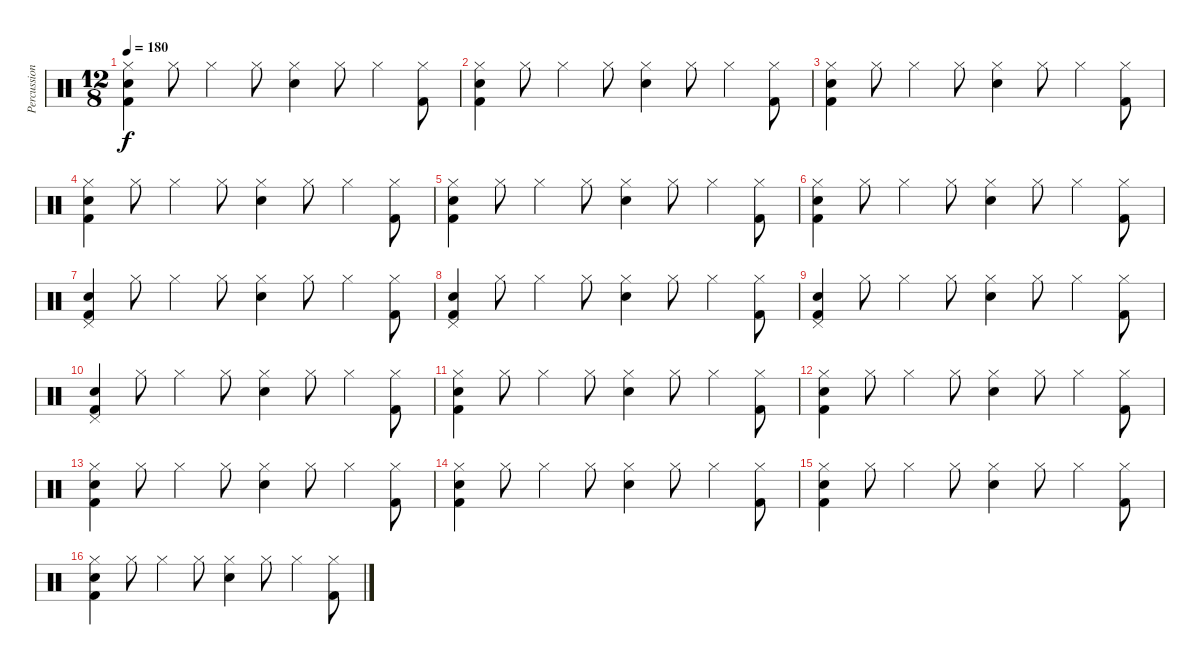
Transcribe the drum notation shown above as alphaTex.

\track ("Percussioni" "Percussion") {instrument percussion}
\staff {score}
\articulation defaults
\ts (12 8)
\tempo 180
\clef neutral
\ks c
("Hi-Hat (closed)" "Snare (hit) 2" "Kick (hit) 2").4{dy f} "Hi-Hat (closed)".8 "Hi-Hat (closed)".4 "Hi-Hat (closed)".8 ("Hi-Hat (closed)" "Snare (hit) 2").4 "Hi-Hat (closed)".8 "Hi-Hat (closed)".4 ("Hi-Hat (closed)" "Kick (hit) 2").8 |
("Hi-Hat (closed)" "Snare (hit) 2" "Kick (hit) 2").4 "Hi-Hat (closed)".8 "Hi-Hat (closed)".4 "Hi-Hat (closed)".8 ("Hi-Hat (closed)" "Snare (hit) 2").4 "Hi-Hat (closed)".8 "Hi-Hat (closed)".4 ("Hi-Hat (closed)" "Kick (hit) 2").8 |
("Hi-Hat (closed)" "Snare (hit) 2" "Kick (hit) 2").4 "Hi-Hat (closed)".8 "Hi-Hat (closed)".4 "Hi-Hat (closed)".8 ("Hi-Hat (closed)" "Snare (hit) 2").4 "Hi-Hat (closed)".8 "Hi-Hat (closed)".4 ("Hi-Hat (closed)" "Kick (hit) 2").8 |
("Hi-Hat (closed)" "Snare (hit) 2" "Kick (hit) 2").4 "Hi-Hat (closed)".8 "Hi-Hat (closed)".4 "Hi-Hat (closed)".8 ("Hi-Hat (closed)" "Snare (hit) 2").4 "Hi-Hat (closed)".8 "Hi-Hat (closed)".4 ("Hi-Hat (closed)" "Kick (hit) 2").8 |
("Hi-Hat (closed)" "Snare (hit) 2" "Kick (hit) 2").4 "Hi-Hat (closed)".8 "Hi-Hat (closed)".4 "Hi-Hat (closed)".8 ("Hi-Hat (closed)" "Snare (hit) 2").4 "Hi-Hat (closed)".8 "Hi-Hat (closed)".4 ("Hi-Hat (closed)" "Kick (hit) 2").8 |
("Hi-Hat (closed)" "Snare (hit) 2" "Kick (hit) 2").4 "Hi-Hat (closed)".8 "Hi-Hat (closed)".4 "Hi-Hat (closed)".8 ("Hi-Hat (closed)" "Snare (hit) 2").4 "Hi-Hat (closed)".8 "Hi-Hat (closed)".4 ("Hi-Hat (closed)" "Kick (hit) 2").8 |
("Pedal Hi-Hat (hit)" "Snare (hit) 2" "Kick (hit) 2").4 "Hi-Hat (closed)".8 "Hi-Hat (closed)".4 "Hi-Hat (closed)".8 ("Hi-Hat (closed)" "Snare (hit) 2").4 "Hi-Hat (closed)".8 "Hi-Hat (closed)".4 ("Hi-Hat (closed)" "Kick (hit) 2").8 |
("Pedal Hi-Hat (hit)" "Snare (hit) 2" "Kick (hit) 2").4 "Hi-Hat (closed)".8 "Hi-Hat (closed)".4 "Hi-Hat (closed)".8 ("Hi-Hat (closed)" "Snare (hit) 2").4 "Hi-Hat (closed)".8 "Hi-Hat (closed)".4 ("Hi-Hat (closed)" "Kick (hit) 2").8 |
("Pedal Hi-Hat (hit)" "Snare (hit) 2" "Kick (hit) 2").4 "Hi-Hat (closed)".8 "Hi-Hat (closed)".4 "Hi-Hat (closed)".8 ("Hi-Hat (closed)" "Snare (hit) 2").4 "Hi-Hat (closed)".8 "Hi-Hat (closed)".4 ("Hi-Hat (closed)" "Kick (hit) 2").8 |
("Pedal Hi-Hat (hit)" "Snare (hit) 2" "Kick (hit) 2").4 "Hi-Hat (closed)".8 "Hi-Hat (closed)".4 "Hi-Hat (closed)".8 ("Hi-Hat (closed)" "Snare (hit) 2").4 "Hi-Hat (closed)".8 "Hi-Hat (closed)".4 ("Hi-Hat (closed)" "Kick (hit) 2").8 |
("Hi-Hat (closed)" "Snare (hit) 2" "Kick (hit) 2").4 "Hi-Hat (closed)".8 "Hi-Hat (closed)".4 "Hi-Hat (closed)".8 ("Hi-Hat (closed)" "Snare (hit) 2").4 "Hi-Hat (closed)".8 "Hi-Hat (closed)".4 ("Hi-Hat (closed)" "Kick (hit) 2").8 |
("Hi-Hat (closed)" "Snare (hit) 2" "Kick (hit) 2").4 "Hi-Hat (closed)".8 "Hi-Hat (closed)".4 "Hi-Hat (closed)".8 ("Hi-Hat (closed)" "Snare (hit) 2").4 "Hi-Hat (closed)".8 "Hi-Hat (closed)".4 ("Hi-Hat (closed)" "Kick (hit) 2").8 |
("Hi-Hat (closed)" "Snare (hit) 2" "Kick (hit) 2").4 "Hi-Hat (closed)".8 "Hi-Hat (closed)".4 "Hi-Hat (closed)".8 ("Hi-Hat (closed)" "Snare (hit) 2").4 "Hi-Hat (closed)".8 "Hi-Hat (closed)".4 ("Hi-Hat (closed)" "Kick (hit) 2").8 |
("Hi-Hat (closed)" "Snare (hit) 2" "Kick (hit) 2").4 "Hi-Hat (closed)".8 "Hi-Hat (closed)".4 "Hi-Hat (closed)".8 ("Hi-Hat (closed)" "Snare (hit) 2").4 "Hi-Hat (closed)".8 "Hi-Hat (closed)".4 ("Hi-Hat (closed)" "Kick (hit) 2").8 |
("Hi-Hat (closed)" "Snare (hit) 2" "Kick (hit) 2").4 "Hi-Hat (closed)".8 "Hi-Hat (closed)".4 "Hi-Hat (closed)".8 ("Hi-Hat (closed)" "Snare (hit) 2").4 "Hi-Hat (closed)".8 "Hi-Hat (closed)".4 ("Hi-Hat (closed)" "Kick (hit) 2").8 |
("Hi-Hat (closed)" "Snare (hit) 2" "Kick (hit) 2").4 "Hi-Hat (closed)".8 "Hi-Hat (closed)".4 "Hi-Hat (closed)".8 ("Hi-Hat (closed)" "Snare (hit) 2").4 "Hi-Hat (closed)".8 "Hi-Hat (closed)".4 ("Hi-Hat (closed)" "Kick (hit) 2").8
